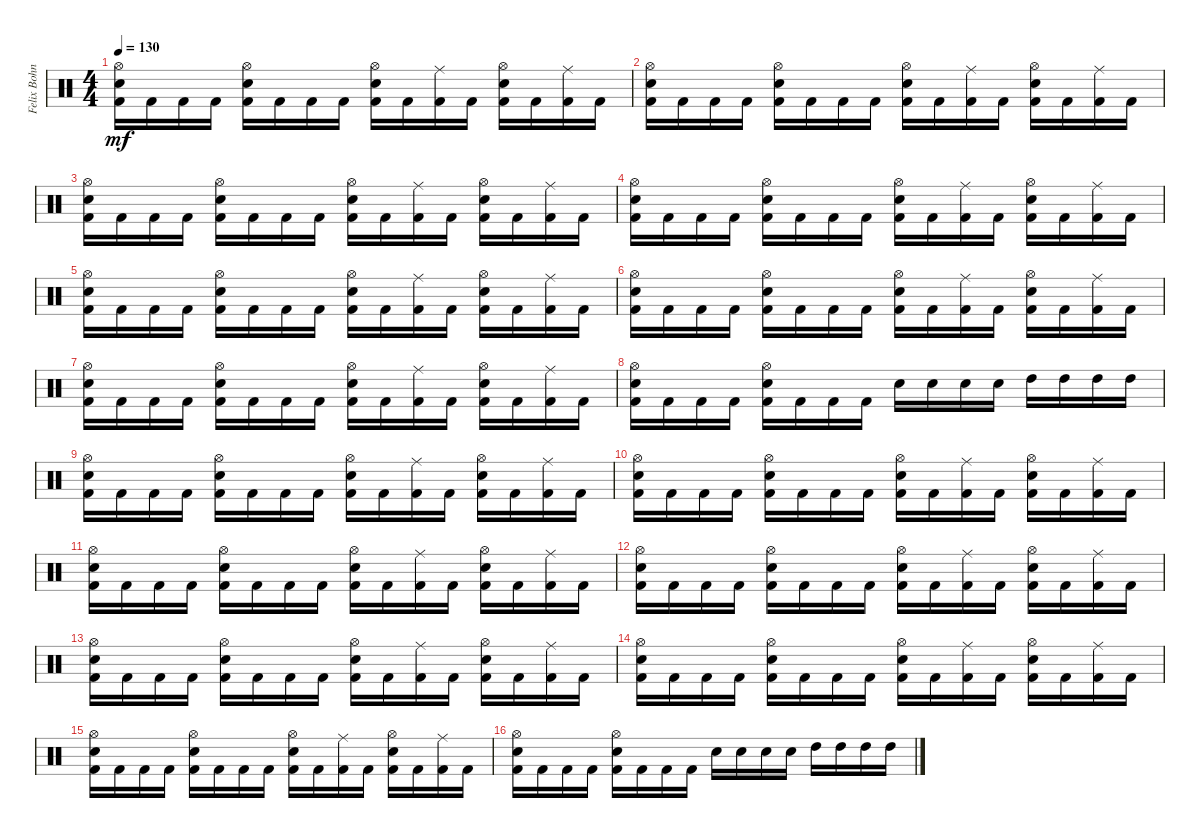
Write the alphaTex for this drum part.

\track ("Felix Bohnke" "Felix Bohn") {instrument percussion}
\staff {score}
\articulation defaults
\ts (4 4)
\tempo 130
\clef neutral
\ks c
("Hi-Hat (open)" "Electric Snare (hit)" "Kick (hit) 2").16{dy mf} "Kick (hit) 2".16 "Kick (hit) 2".16 "Kick (hit) 2".16 ("Hi-Hat (open)" "Electric Snare (hit)" "Kick (hit) 2").16 "Kick (hit) 2".16 "Kick (hit) 2".16 "Kick (hit) 2".16 ("Hi-Hat (open)" "Electric Snare (hit)" "Kick (hit) 2").16 "Kick (hit) 2".16 ("Ride (middle)" "Kick (hit) 2").16 "Kick (hit) 2".16 ("Hi-Hat (open)" "Electric Snare (hit)" "Kick (hit) 2").16 "Kick (hit) 2".16 ("Ride (middle)" "Kick (hit) 2").16 "Kick (hit) 2".16 |
("Hi-Hat (open)" "Electric Snare (hit)" "Kick (hit) 2").16 "Kick (hit) 2".16 "Kick (hit) 2".16 "Kick (hit) 2".16 ("Hi-Hat (open)" "Electric Snare (hit)" "Kick (hit) 2").16 "Kick (hit) 2".16 "Kick (hit) 2".16 "Kick (hit) 2".16 ("Hi-Hat (open)" "Electric Snare (hit)" "Kick (hit) 2").16 "Kick (hit) 2".16 ("Ride (middle)" "Kick (hit) 2").16 "Kick (hit) 2".16 ("Hi-Hat (open)" "Electric Snare (hit)" "Kick (hit) 2").16 "Kick (hit) 2".16 ("Ride (middle)" "Kick (hit) 2").16 "Kick (hit) 2".16 |
("Hi-Hat (open)" "Electric Snare (hit)" "Kick (hit) 2").16 "Kick (hit) 2".16 "Kick (hit) 2".16 "Kick (hit) 2".16 ("Hi-Hat (open)" "Electric Snare (hit)" "Kick (hit) 2").16 "Kick (hit) 2".16 "Kick (hit) 2".16 "Kick (hit) 2".16 ("Hi-Hat (open)" "Electric Snare (hit)" "Kick (hit) 2").16 "Kick (hit) 2".16 ("Ride (middle)" "Kick (hit) 2").16 "Kick (hit) 2".16 ("Hi-Hat (open)" "Electric Snare (hit)" "Kick (hit) 2").16 "Kick (hit) 2".16 ("Ride (middle)" "Kick (hit) 2").16 "Kick (hit) 2".16 |
("Hi-Hat (open)" "Electric Snare (hit)" "Kick (hit) 2").16 "Kick (hit) 2".16 "Kick (hit) 2".16 "Kick (hit) 2".16 ("Hi-Hat (open)" "Electric Snare (hit)" "Kick (hit) 2").16 "Kick (hit) 2".16 "Kick (hit) 2".16 "Kick (hit) 2".16 ("Hi-Hat (open)" "Electric Snare (hit)" "Kick (hit) 2").16 "Kick (hit) 2".16 ("Ride (middle)" "Kick (hit) 2").16 "Kick (hit) 2".16 ("Hi-Hat (open)" "Electric Snare (hit)" "Kick (hit) 2").16 "Kick (hit) 2".16 ("Ride (middle)" "Kick (hit) 2").16 "Kick (hit) 2".16 |
("Hi-Hat (open)" "Electric Snare (hit)" "Kick (hit) 2").16 "Kick (hit) 2".16 "Kick (hit) 2".16 "Kick (hit) 2".16 ("Hi-Hat (open)" "Electric Snare (hit)" "Kick (hit) 2").16 "Kick (hit) 2".16 "Kick (hit) 2".16 "Kick (hit) 2".16 ("Hi-Hat (open)" "Electric Snare (hit)" "Kick (hit) 2").16 "Kick (hit) 2".16 ("Ride (middle)" "Kick (hit) 2").16 "Kick (hit) 2".16 ("Hi-Hat (open)" "Electric Snare (hit)" "Kick (hit) 2").16 "Kick (hit) 2".16 ("Ride (middle)" "Kick (hit) 2").16 "Kick (hit) 2".16 |
("Hi-Hat (open)" "Electric Snare (hit)" "Kick (hit) 2").16 "Kick (hit) 2".16 "Kick (hit) 2".16 "Kick (hit) 2".16 ("Hi-Hat (open)" "Electric Snare (hit)" "Kick (hit) 2").16 "Kick (hit) 2".16 "Kick (hit) 2".16 "Kick (hit) 2".16 ("Hi-Hat (open)" "Electric Snare (hit)" "Kick (hit) 2").16 "Kick (hit) 2".16 ("Ride (middle)" "Kick (hit) 2").16 "Kick (hit) 2".16 ("Hi-Hat (open)" "Electric Snare (hit)" "Kick (hit) 2").16 "Kick (hit) 2".16 ("Ride (middle)" "Kick (hit) 2").16 "Kick (hit) 2".16 |
("Hi-Hat (open)" "Electric Snare (hit)" "Kick (hit) 2").16 "Kick (hit) 2".16 "Kick (hit) 2".16 "Kick (hit) 2".16 ("Hi-Hat (open)" "Electric Snare (hit)" "Kick (hit) 2").16 "Kick (hit) 2".16 "Kick (hit) 2".16 "Kick (hit) 2".16 ("Hi-Hat (open)" "Electric Snare (hit)" "Kick (hit) 2").16 "Kick (hit) 2".16 ("Ride (middle)" "Kick (hit) 2").16 "Kick (hit) 2".16 ("Hi-Hat (open)" "Electric Snare (hit)" "Kick (hit) 2").16 "Kick (hit) 2".16 ("Ride (middle)" "Kick (hit) 2").16 "Kick (hit) 2".16 |
("Hi-Hat (open)" "Electric Snare (hit)" "Kick (hit) 2").16 "Kick (hit) 2".16 "Kick (hit) 2".16 "Kick (hit) 2".16 ("Hi-Hat (open)" "Electric Snare (hit)" "Kick (hit) 2").16 "Kick (hit) 2".16 "Kick (hit) 2".16 "Kick (hit) 2".16 "Electric Snare (hit)".16 "Electric Snare (hit)".16 "Electric Snare (hit)".16 "Electric Snare (hit)".16 "High Tom (hit)".16 "High Tom (hit)".16 "High Tom (hit)".16 "High Tom (hit)".16 |
("Hi-Hat (open)" "Electric Snare (hit)" "Kick (hit) 2").16 "Kick (hit) 2".16 "Kick (hit) 2".16 "Kick (hit) 2".16 ("Hi-Hat (open)" "Electric Snare (hit)" "Kick (hit) 2").16 "Kick (hit) 2".16 "Kick (hit) 2".16 "Kick (hit) 2".16 ("Hi-Hat (open)" "Electric Snare (hit)" "Kick (hit) 2").16 "Kick (hit) 2".16 ("Ride (middle)" "Kick (hit) 2").16 "Kick (hit) 2".16 ("Hi-Hat (open)" "Electric Snare (hit)" "Kick (hit) 2").16 "Kick (hit) 2".16 ("Ride (middle)" "Kick (hit) 2").16 "Kick (hit) 2".16 |
("Hi-Hat (open)" "Electric Snare (hit)" "Kick (hit) 2").16 "Kick (hit) 2".16 "Kick (hit) 2".16 "Kick (hit) 2".16 ("Hi-Hat (open)" "Electric Snare (hit)" "Kick (hit) 2").16 "Kick (hit) 2".16 "Kick (hit) 2".16 "Kick (hit) 2".16 ("Hi-Hat (open)" "Electric Snare (hit)" "Kick (hit) 2").16 "Kick (hit) 2".16 ("Ride (middle)" "Kick (hit) 2").16 "Kick (hit) 2".16 ("Hi-Hat (open)" "Electric Snare (hit)" "Kick (hit) 2").16 "Kick (hit) 2".16 ("Ride (middle)" "Kick (hit) 2").16 "Kick (hit) 2".16 |
("Hi-Hat (open)" "Electric Snare (hit)" "Kick (hit) 2").16 "Kick (hit) 2".16 "Kick (hit) 2".16 "Kick (hit) 2".16 ("Hi-Hat (open)" "Electric Snare (hit)" "Kick (hit) 2").16 "Kick (hit) 2".16 "Kick (hit) 2".16 "Kick (hit) 2".16 ("Hi-Hat (open)" "Electric Snare (hit)" "Kick (hit) 2").16 "Kick (hit) 2".16 ("Ride (middle)" "Kick (hit) 2").16 "Kick (hit) 2".16 ("Hi-Hat (open)" "Electric Snare (hit)" "Kick (hit) 2").16 "Kick (hit) 2".16 ("Ride (middle)" "Kick (hit) 2").16 "Kick (hit) 2".16 |
("Hi-Hat (open)" "Electric Snare (hit)" "Kick (hit) 2").16 "Kick (hit) 2".16 "Kick (hit) 2".16 "Kick (hit) 2".16 ("Hi-Hat (open)" "Electric Snare (hit)" "Kick (hit) 2").16 "Kick (hit) 2".16 "Kick (hit) 2".16 "Kick (hit) 2".16 ("Hi-Hat (open)" "Electric Snare (hit)" "Kick (hit) 2").16 "Kick (hit) 2".16 ("Ride (middle)" "Kick (hit) 2").16 "Kick (hit) 2".16 ("Hi-Hat (open)" "Electric Snare (hit)" "Kick (hit) 2").16 "Kick (hit) 2".16 ("Ride (middle)" "Kick (hit) 2").16 "Kick (hit) 2".16 |
("Hi-Hat (open)" "Electric Snare (hit)" "Kick (hit) 2").16 "Kick (hit) 2".16 "Kick (hit) 2".16 "Kick (hit) 2".16 ("Hi-Hat (open)" "Electric Snare (hit)" "Kick (hit) 2").16 "Kick (hit) 2".16 "Kick (hit) 2".16 "Kick (hit) 2".16 ("Hi-Hat (open)" "Electric Snare (hit)" "Kick (hit) 2").16 "Kick (hit) 2".16 ("Ride (middle)" "Kick (hit) 2").16 "Kick (hit) 2".16 ("Hi-Hat (open)" "Electric Snare (hit)" "Kick (hit) 2").16 "Kick (hit) 2".16 ("Ride (middle)" "Kick (hit) 2").16 "Kick (hit) 2".16 |
("Hi-Hat (open)" "Electric Snare (hit)" "Kick (hit) 2").16 "Kick (hit) 2".16 "Kick (hit) 2".16 "Kick (hit) 2".16 ("Hi-Hat (open)" "Electric Snare (hit)" "Kick (hit) 2").16 "Kick (hit) 2".16 "Kick (hit) 2".16 "Kick (hit) 2".16 ("Hi-Hat (open)" "Electric Snare (hit)" "Kick (hit) 2").16 "Kick (hit) 2".16 ("Ride (middle)" "Kick (hit) 2").16 "Kick (hit) 2".16 ("Hi-Hat (open)" "Electric Snare (hit)" "Kick (hit) 2").16 "Kick (hit) 2".16 ("Ride (middle)" "Kick (hit) 2").16 "Kick (hit) 2".16 |
("Hi-Hat (open)" "Electric Snare (hit)" "Kick (hit) 2").16 "Kick (hit) 2".16 "Kick (hit) 2".16 "Kick (hit) 2".16 ("Hi-Hat (open)" "Electric Snare (hit)" "Kick (hit) 2").16 "Kick (hit) 2".16 "Kick (hit) 2".16 "Kick (hit) 2".16 ("Hi-Hat (open)" "Electric Snare (hit)" "Kick (hit) 2").16 "Kick (hit) 2".16 ("Ride (middle)" "Kick (hit) 2").16 "Kick (hit) 2".16 ("Hi-Hat (open)" "Electric Snare (hit)" "Kick (hit) 2").16 "Kick (hit) 2".16 ("Ride (middle)" "Kick (hit) 2").16 "Kick (hit) 2".16 |
("Hi-Hat (open)" "Electric Snare (hit)" "Kick (hit) 2").16 "Kick (hit) 2".16 "Kick (hit) 2".16 "Kick (hit) 2".16 ("Hi-Hat (open)" "Electric Snare (hit)" "Kick (hit) 2").16 "Kick (hit) 2".16 "Kick (hit) 2".16 "Kick (hit) 2".16 "Electric Snare (hit)".16 "Electric Snare (hit)".16 "Electric Snare (hit)".16 "Electric Snare (hit)".16 "High Tom (hit)".16 "High Tom (hit)".16 "High Tom (hit)".16 "High Tom (hit)".16
